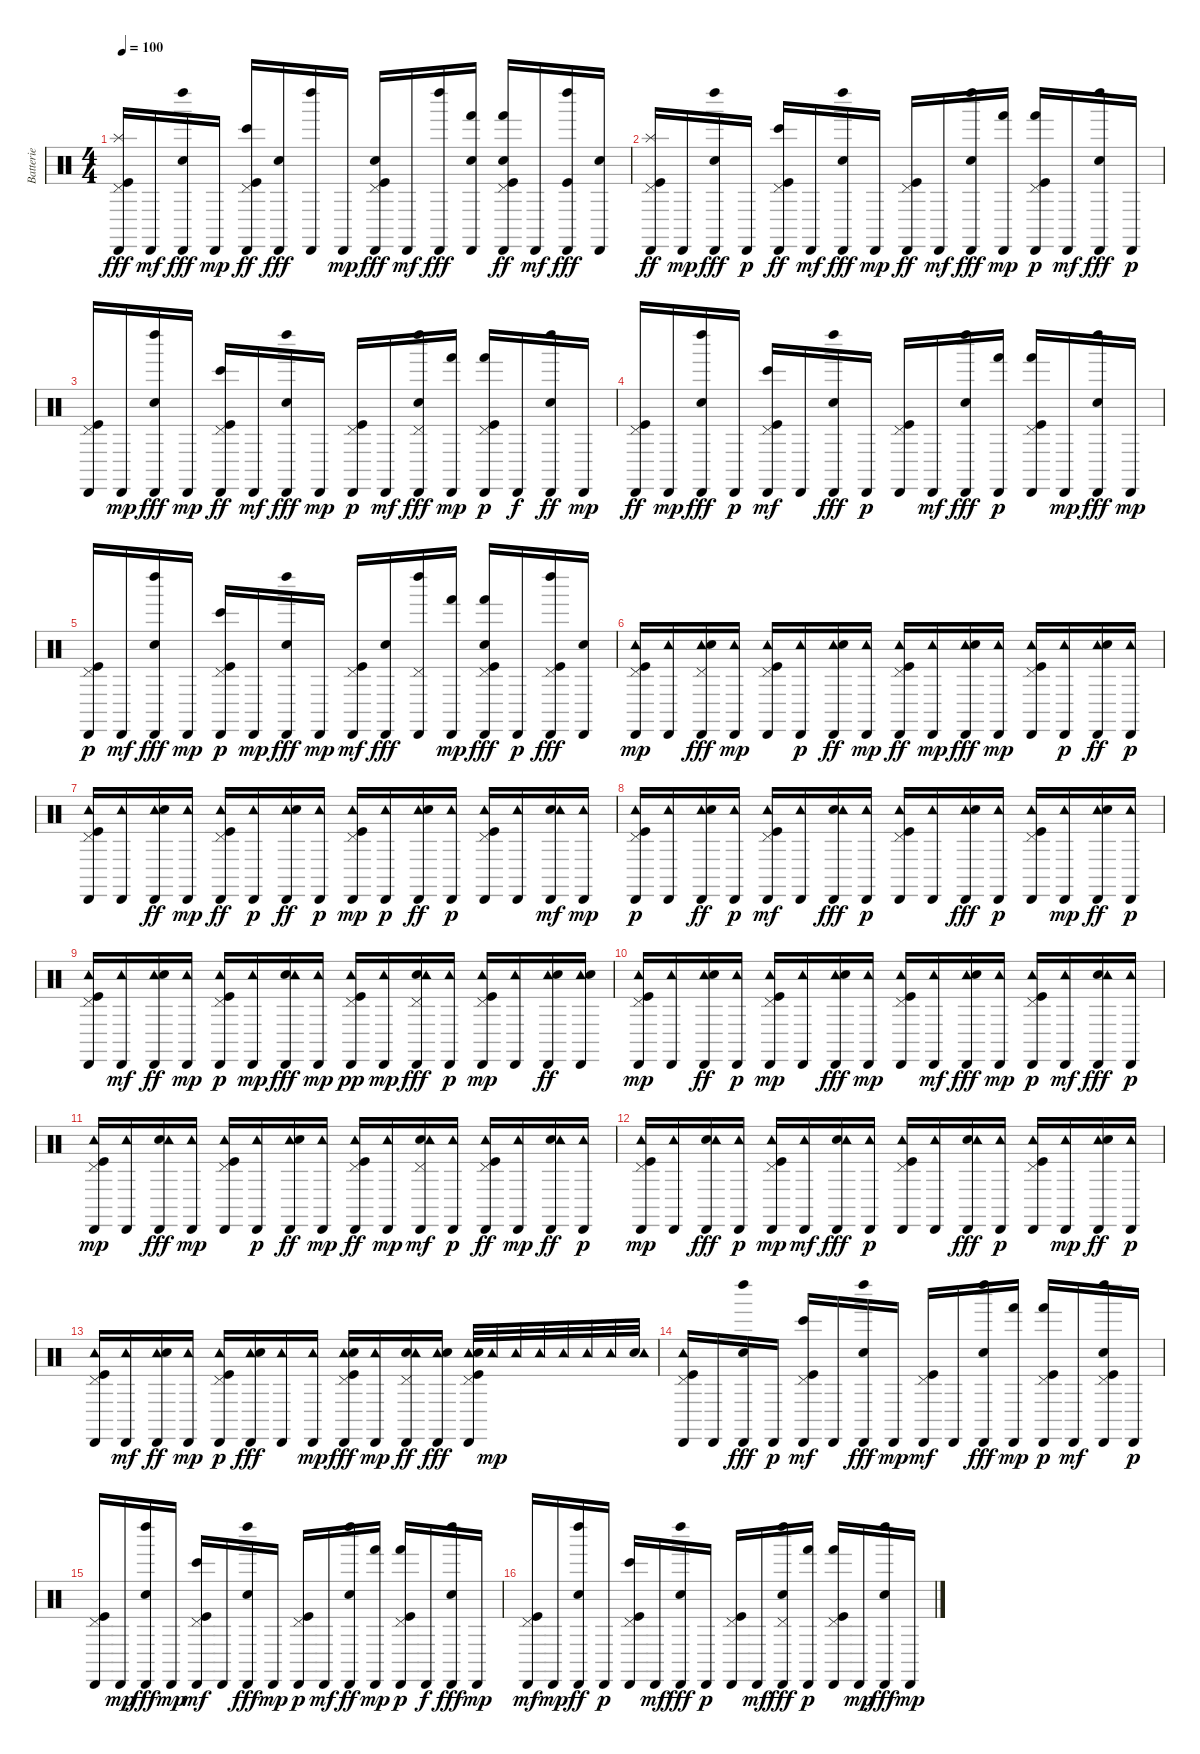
\track ("Batterie" "Batterie") {instrument percussion}
\staff {score}
\articulation defaults
\ts (4 4)
\tempo 100
\clef neutral
\ks c
("Kick (hit)" "Pedal Hi-Hat (hit)" "Cabasa (hit)" "Splash (hit)").16{dy fff} "Cabasa (hit)".16{dy mf} ("Cabasa (hit)" "Left Maraca (hit)" "Hand Clap (hit)").16{dy fff} "Cabasa (hit)".16{dy mp} ("Kick (hit)" "Cabasa (hit)" "Bongo High (hit)" "Pedal Hi-Hat (hit)").16{dy ff} ("Cabasa (hit)" "Hand Clap (hit)").16{dy fff} ("Cabasa (hit)" "Left Maraca (hit)").16 "Cabasa (hit)".16{dy mp} ("Kick (hit)" "Cabasa (hit)" "Hand Clap (hit)" "Pedal Hi-Hat (hit)").16{dy fff} "Cabasa (hit)".16{dy mf} ("Left Maraca (hit)" "Cabasa (hit)").16{dy fff} ("Hand (hit)" "Cabasa (hit)" "Hand Clap (hit)").16 ("Hand (hit)" "Hand Clap (hit)" "Cabasa (hit)" "Kick (hit)" "Pedal Hi-Hat (hit)").16{dy ff} "Cabasa (hit)".16{dy mf} ("Cabasa (hit)" "Left Maraca (hit)" "Kick (hit)").16{dy fff} ("Cabasa (hit)" "Hand Clap (hit)").16 |
("Cabasa (hit)" "Splash (hit)" "Kick (hit)" "Pedal Hi-Hat (hit)").16{dy ff} "Cabasa (hit)".16{dy mp} ("Cabasa (hit)" "Left Maraca (hit)" "Hand Clap (hit)").16{dy fff} "Cabasa (hit)".16{dy p} ("Cabasa (hit)" "Bongo High (hit)" "Kick (hit)" "Pedal Hi-Hat (hit)").16{dy ff} "Cabasa (hit)".16{dy mf} ("Cabasa (hit)" "Left Maraca (hit)" "Hand Clap (hit)").16{dy fff} "Cabasa (hit)".16{dy mp} ("Cabasa (hit)" "Kick (hit)" "Pedal Hi-Hat (hit)").16{dy ff} "Cabasa (hit)".16{dy mf} ("Left Maraca (hit)" "Cabasa (hit)" "Hand Clap (hit)").16{dy fff} ("Hand (hit)" "Cabasa (hit)").16{dy mp} ("Hand (hit)" "Kick (hit)" "Pedal Hi-Hat (hit)" "Cabasa (hit)").16{dy p} "Cabasa (hit)".16{dy mf} ("Left Maraca (hit)" "Cabasa (hit)" "Hand Clap (hit)").16{dy fff} "Cabasa (hit)".16{dy p} |
("Kick (hit)" "Cabasa (hit)" "Pedal Hi-Hat (hit)").16 "Cabasa (hit)".16{dy mp} ("Cabasa (hit)" "Left Maraca (hit)" "Hand Clap (hit)").16{dy fff} "Cabasa (hit)".16{dy mp} ("Bongo High (hit)" "Kick (hit)" "Cabasa (hit)" "Pedal Hi-Hat (hit)").16{dy ff} "Cabasa (hit)".16{dy mf} ("Cabasa (hit)" "Left Maraca (hit)" "Hand Clap (hit)").16{dy fff} "Cabasa (hit)".16{dy mp} ("Kick (hit)" "Cabasa (hit)" "Pedal Hi-Hat (hit)").16{dy p} "Cabasa (hit)".16{dy mf} ("Hand Clap (hit)" "Pedal Hi-Hat (hit)" "Cabasa (hit)" "Left Maraca (hit)").16{dy fff} ("Cabasa (hit)" "Hand (hit)").16{dy mp} ("Hand (hit)" "Kick (hit)" "Pedal Hi-Hat (hit)" "Cabasa (hit)").16{dy p} "Cabasa (hit)".16{dy f} ("Hand Clap (hit)" "Left Maraca (hit)" "Cabasa (hit)").16{dy ff} "Cabasa (hit)".16{dy mp} |
("Kick (hit)" "Cabasa (hit)" "Pedal Hi-Hat (hit)").16{dy ff} "Cabasa (hit)".16{dy mp} ("Cabasa (hit)" "Hand Clap (hit)" "Left Maraca (hit)").16{dy fff} "Cabasa (hit)".16{dy p} ("Cabasa (hit)" "Kick (hit)" "Bongo High (hit)" "Pedal Hi-Hat (hit)").16{dy mf} "Cabasa (hit)".16 ("Cabasa (hit)" "Hand Clap (hit)" "Left Maraca (hit)").16{dy fff} "Cabasa (hit)".16{dy p} ("Kick (hit)" "Cabasa (hit)" "Pedal Hi-Hat (hit)").16 "Cabasa (hit)".16{dy mf} ("Hand Clap (hit)" "Left Maraca (hit)" "Cabasa (hit)").16{dy fff} ("Hand (hit)" "Cabasa (hit)").16{dy p} ("Kick (hit)" "Hand (hit)" "Pedal Hi-Hat (hit)" "Cabasa (hit)").16 "Cabasa (hit)".16{dy mp} ("Cabasa (hit)" "Left Maraca (hit)" "Hand Clap (hit)").16{dy fff} "Cabasa (hit)".16{dy mp} |
("Kick (hit)" "Cabasa (hit)" "Pedal Hi-Hat (hit)").16{dy p} "Cabasa (hit)".16{dy mf} ("Cabasa (hit)" "Left Maraca (hit)" "Hand Clap (hit)").16{dy fff} "Cabasa (hit)".16{dy mp} ("Kick (hit)" "Bongo High (hit)" "Cabasa (hit)" "Pedal Hi-Hat (hit)").16{dy p} "Cabasa (hit)".16{dy mp} ("Cabasa (hit)" "Left Maraca (hit)" "Hand Clap (hit)").16{dy fff} "Cabasa (hit)".16{dy mp} ("Kick (hit)" "Cabasa (hit)" "Pedal Hi-Hat (hit)").16{dy mf} ("Cabasa (hit)" "Hand Clap (hit)").16{dy fff} ("Cabasa (hit)" "Left Maraca (hit)" "Pedal Hi-Hat (hit)").16 ("Cabasa (hit)" "Hand (hit)").16{dy mp} ("Kick (hit)" "Hand (hit)" "Cabasa (hit)" "Pedal Hi-Hat (hit)" "Hand Clap (hit)").16{dy fff} "Cabasa (hit)".16{dy p} ("Cabasa (hit)" "Kick (hit)" "Left Maraca (hit)" "Pedal Hi-Hat (hit)").16{dy fff} ("Cabasa (hit)" "Hand Clap (hit)").16 |
("Cabasa (hit)" "Tambourine (hit)" "Kick (hit)" "Pedal Hi-Hat (hit)").16{dy mp} ("Tambourine (hit)" "Cabasa (hit)").16 ("Cabasa (hit)" "Tambourine (hit)" "Pedal Hi-Hat (hit)" "Hand Clap (hit)").16{dy fff} ("Cabasa (hit)" "Tambourine (hit)").16{dy mp} ("Cabasa (hit)" "Kick (hit)" "Pedal Hi-Hat (hit)" "Tambourine (hit)").16 ("Cabasa (hit)" "Tambourine (hit)").16{dy p} ("Cabasa (hit)" "Tambourine (hit)" "Hand Clap (hit)").16{dy ff} ("Cabasa (hit)" "Tambourine (hit)").16{dy mp} ("Cabasa (hit)" "Kick (hit)" "Tambourine (hit)" "Pedal Hi-Hat (hit)").16{dy ff} ("Cabasa (hit)" "Tambourine (hit)").16{dy mp} ("Cabasa (hit)" "Tambourine (hit)" "Hand Clap (hit)").16{dy fff} ("Tambourine (hit)" "Cabasa (hit)").16{dy mp} ("Cabasa (hit)" "Kick (hit)" "Tambourine (hit)" "Pedal Hi-Hat (hit)").16 ("Cabasa (hit)" "Tambourine (hit)").16{dy p} ("Cabasa (hit)" "Tambourine (hit)" "Hand Clap (hit)").16{dy ff} ("Cabasa (hit)" "Tambourine (hit)").16{dy p} |
("Cabasa (hit)" "Tambourine (hit)" "Kick (hit)" "Pedal Hi-Hat (hit)").16 ("Cabasa (hit)" "Tambourine (hit)").16 ("Tambourine (hit)" "Cabasa (hit)" "Hand Clap (hit)").16{dy ff} ("Cabasa (hit)" "Tambourine (hit)").16{dy mp} ("Cabasa (hit)" "Tambourine (hit)" "Kick (hit)" "Pedal Hi-Hat (hit)").16{dy ff} ("Cabasa (hit)" "Tambourine (hit)").16{dy p} ("Cabasa (hit)" "Tambourine (hit)" "Hand Clap (hit)").16{dy ff} ("Cabasa (hit)" "Tambourine (hit)").16{dy p} ("Pedal Hi-Hat (hit)" "Kick (hit)" "Cabasa (hit)" "Tambourine (hit)").16{dy mp} ("Cabasa (hit)" "Tambourine (hit)").16{dy p} ("Cabasa (hit)" "Tambourine (hit)" "Hand Clap (hit)").16{dy ff} ("Cabasa (hit)" "Tambourine (hit)").16{dy p} ("Kick (hit)" "Pedal Hi-Hat (hit)" "Tambourine (hit)" "Cabasa (hit)").16 ("Cabasa (hit)" "Tambourine (hit)").16 ("Cabasa (hit)" "Hand Clap (hit)" "Tambourine (hit)").16{dy mf} ("Cabasa (hit)" "Tambourine (hit)").16{dy mp} |
("Tambourine (hit)" "Cabasa (hit)" "Pedal Hi-Hat (hit)" "Kick (hit)").16{dy p} ("Cabasa (hit)" "Tambourine (hit)").16 ("Cabasa (hit)" "Tambourine (hit)" "Hand Clap (hit)").16{dy ff} ("Cabasa (hit)" "Tambourine (hit)").16{dy p} ("Pedal Hi-Hat (hit)" "Tambourine (hit)" "Cabasa (hit)" "Kick (hit)").16{dy mf} ("Tambourine (hit)" "Cabasa (hit)").16 ("Hand Clap (hit)" "Cabasa (hit)" "Tambourine (hit)").16{dy fff} ("Tambourine (hit)" "Cabasa (hit)").16{dy p} ("Pedal Hi-Hat (hit)" "Kick (hit)" "Tambourine (hit)" "Cabasa (hit)").16 ("Cabasa (hit)" "Tambourine (hit)").16 ("Tambourine (hit)" "Hand Clap (hit)" "Cabasa (hit)").16{dy fff} ("Tambourine (hit)" "Cabasa (hit)").16{dy p} ("Tambourine (hit)" "Pedal Hi-Hat (hit)" "Kick (hit)" "Cabasa (hit)").16 ("Tambourine (hit)" "Cabasa (hit)").16{dy mp} ("Cabasa (hit)" "Tambourine (hit)" "Hand Clap (hit)").16{dy ff} ("Cabasa (hit)" "Tambourine (hit)").16{dy p} |
("Pedal Hi-Hat (hit)" "Tambourine (hit)" "Kick (hit)" "Cabasa (hit)").16 ("Tambourine (hit)" "Cabasa (hit)").16{dy mf} ("Cabasa (hit)" "Tambourine (hit)" "Hand Clap (hit)").16{dy ff} ("Tambourine (hit)" "Cabasa (hit)").16{dy mp} ("Pedal Hi-Hat (hit)" "Tambourine (hit)" "Kick (hit)" "Cabasa (hit)").16{dy p} ("Tambourine (hit)" "Cabasa (hit)").16{dy mp} ("Hand Clap (hit)" "Cabasa (hit)" "Tambourine (hit)").16{dy fff} ("Tambourine (hit)" "Cabasa (hit)").16{dy mp} ("Kick (hit)" "Pedal Hi-Hat (hit)" "Cabasa (hit)" "Tambourine (hit)").16{dy pp} ("Cabasa (hit)" "Tambourine (hit)").16{dy mp} ("Pedal Hi-Hat (hit)" "Hand Clap (hit)" "Cabasa (hit)" "Tambourine (hit)").16{dy fff} ("Cabasa (hit)" "Tambourine (hit)").16{dy p} ("Kick (hit)" "Pedal Hi-Hat (hit)" "Cabasa (hit)" "Tambourine (hit)").16{dy mp} ("Cabasa (hit)" "Tambourine (hit)").16 ("Tambourine (hit)" "Cabasa (hit)" "Hand Clap (hit)").16{dy ff} ("Cabasa (hit)" "Tambourine (hit)" "Hand Clap (hit)").16 |
("Kick (hit)" "Pedal Hi-Hat (hit)" "Tambourine (hit)" "Cabasa (hit)").16{dy mp} ("Tambourine (hit)" "Cabasa (hit)").16 ("Tambourine (hit)" "Cabasa (hit)" "Hand Clap (hit)").16{dy ff} ("Tambourine (hit)" "Cabasa (hit)").16{dy p} ("Cabasa (hit)" "Kick (hit)" "Tambourine (hit)" "Pedal Hi-Hat (hit)").16{dy mp} ("Cabasa (hit)" "Tambourine (hit)").16 ("Tambourine (hit)" "Cabasa (hit)" "Hand Clap (hit)").16{dy fff} ("Tambourine (hit)" "Cabasa (hit)").16{dy mp} ("Cabasa (hit)" "Kick (hit)" "Pedal Hi-Hat (hit)" "Tambourine (hit)").16 ("Tambourine (hit)" "Cabasa (hit)").16{dy mf} ("Tambourine (hit)" "Hand Clap (hit)" "Cabasa (hit)").16{dy fff} ("Tambourine (hit)" "Cabasa (hit)").16{dy mp} ("Pedal Hi-Hat (hit)" "Kick (hit)" "Tambourine (hit)" "Cabasa (hit)").16{dy p} ("Tambourine (hit)" "Cabasa (hit)").16{dy mf} ("Hand Clap (hit)" "Tambourine (hit)" "Cabasa (hit)").16{dy fff} ("Cabasa (hit)" "Tambourine (hit)").16{dy p} |
("Kick (hit)" "Pedal Hi-Hat (hit)" "Cabasa (hit)" "Tambourine (hit)").16{dy mp} ("Cabasa (hit)" "Tambourine (hit)").16 ("Cabasa (hit)" "Hand Clap (hit)" "Tambourine (hit)").16{dy fff} ("Cabasa (hit)" "Tambourine (hit)").16{dy mp} ("Kick (hit)" "Pedal Hi-Hat (hit)" "Cabasa (hit)" "Tambourine (hit)").16 ("Cabasa (hit)" "Tambourine (hit)").16{dy p} ("Cabasa (hit)" "Tambourine (hit)" "Hand Clap (hit)").16{dy ff} ("Tambourine (hit)" "Cabasa (hit)").16{dy mp} ("Kick (hit)" "Cabasa (hit)" "Tambourine (hit)" "Pedal Hi-Hat (hit)").16{dy ff} ("Cabasa (hit)" "Tambourine (hit)").16{dy mp} ("Hand Clap (hit)" "Cabasa (hit)" "Tambourine (hit)" "Pedal Hi-Hat (hit)").16{dy mf} ("Cabasa (hit)" "Tambourine (hit)").16{dy p} ("Kick (hit)" "Tambourine (hit)" "Cabasa (hit)" "Pedal Hi-Hat (hit)").16{dy ff} ("Tambourine (hit)" "Cabasa (hit)").16{dy mp} ("Hand Clap (hit)" "Tambourine (hit)" "Cabasa (hit)").16{dy ff} ("Cabasa (hit)" "Tambourine (hit)").16{dy p} |
("Kick (hit)" "Pedal Hi-Hat (hit)" "Cabasa (hit)" "Tambourine (hit)").16{dy mp} ("Cabasa (hit)" "Tambourine (hit)").16 ("Hand Clap (hit)" "Tambourine (hit)" "Cabasa (hit)").16{dy fff} ("Tambourine (hit)" "Cabasa (hit)").16{dy p} ("Kick (hit)" "Pedal Hi-Hat (hit)" "Cabasa (hit)" "Tambourine (hit)").16{dy mp} ("Tambourine (hit)" "Cabasa (hit)").16{dy mf} ("Hand Clap (hit)" "Cabasa (hit)" "Tambourine (hit)").16{dy fff} ("Tambourine (hit)" "Cabasa (hit)").16{dy p} ("Kick (hit)" "Pedal Hi-Hat (hit)" "Tambourine (hit)" "Cabasa (hit)").16 ("Cabasa (hit)" "Tambourine (hit)").16 ("Hand Clap (hit)" "Tambourine (hit)" "Cabasa (hit)").16{dy fff} ("Tambourine (hit)" "Cabasa (hit)").16{dy p} ("Kick (hit)" "Pedal Hi-Hat (hit)" "Tambourine (hit)" "Cabasa (hit)").16 ("Cabasa (hit)" "Tambourine (hit)").16{dy mp} ("Tambourine (hit)" "Cabasa (hit)" "Hand Clap (hit)").16{dy ff} ("Cabasa (hit)" "Tambourine (hit)").16{dy p} |
("Kick (hit)" "Pedal Hi-Hat (hit)" "Tambourine (hit)" "Cabasa (hit)").16 ("Tambourine (hit)" "Cabasa (hit)").16{dy mf} ("Tambourine (hit)" "Cabasa (hit)" "Hand Clap (hit)").16{dy ff} ("Tambourine (hit)" "Cabasa (hit)").16{dy mp} ("Pedal Hi-Hat (hit)" "Tambourine (hit)" "Cabasa (hit)" "Kick (hit)").16{dy p} ("Tambourine (hit)" "Cabasa (hit)" "Hand Clap (hit)").16{dy fff} ("Cabasa (hit)" "Tambourine (hit)").16 ("Tambourine (hit)" "Cabasa (hit)").16{dy mp} ("Pedal Hi-Hat (hit)" "Cabasa (hit)" "Tambourine (hit)" "Kick (hit)" "Hand Clap (hit)").16{dy fff} ("Cabasa (hit)" "Tambourine (hit)").16{dy mp} ("Pedal Hi-Hat (hit)" "Cabasa (hit)" "Hand Clap (hit)" "Tambourine (hit)").16{dy ff} ("Cabasa (hit)" "Tambourine (hit)" "Hand Clap (hit)").16{dy fff} ("Kick (hit)" "Cabasa (hit)" "Pedal Hi-Hat (hit)" "Tambourine (hit)" "Hand Clap (hit)").32 "Tambourine (hit)".32{dy mp} "Tambourine (hit)".32 "Tambourine (hit)".32 "Tambourine (hit)".32 "Tambourine (hit)".32 "Tambourine (hit)".32 ("Hand Clap (hit)" "Tambourine (hit)").32 |
("Tambourine (hit)" "Kick (hit)" "Pedal Hi-Hat (hit)" "Cabasa (hit)").16 "Cabasa (hit)".16 ("Hand Clap (hit)" "Cabasa (hit)" "Left Maraca (hit)").16{dy fff} "Cabasa (hit)".16{dy p} ("Cabasa (hit)" "Bongo High (hit)" "Kick (hit)" "Pedal Hi-Hat (hit)").16{dy mf} "Cabasa (hit)".16 ("Cabasa (hit)" "Hand Clap (hit)" "Left Maraca (hit)").16{dy fff} "Cabasa (hit)".16{dy mp} ("Cabasa (hit)" "Kick (hit)" "Pedal Hi-Hat (hit)").16{dy mf} "Cabasa (hit)".16 ("Cabasa (hit)" "Hand Clap (hit)" "Left Maraca (hit)").16{dy fff} ("Hand (hit)" "Cabasa (hit)").16{dy mp} ("Hand (hit)" "Kick (hit)" "Cabasa (hit)" "Pedal Hi-Hat (hit)").16{dy p} "Cabasa (hit)".16{dy mf} ("Kick (hit)" "Hand Clap (hit)" "Cabasa (hit)" "Left Maraca (hit)" "Pedal Hi-Hat (hit)").16 "Cabasa (hit)".16{dy p} |
("Cabasa (hit)" "Pedal Hi-Hat (hit)" "Kick (hit)").16 "Cabasa (hit)".16{dy mp} ("Cabasa (hit)" "Hand Clap (hit)" "Left Maraca (hit)").16{dy fff} "Cabasa (hit)".16{dy mp} ("Bongo High (hit)" "Pedal Hi-Hat (hit)" "Cabasa (hit)" "Kick (hit)").16{dy mf} "Cabasa (hit)".16 ("Cabasa (hit)" "Left Maraca (hit)" "Hand Clap (hit)").16{dy fff} "Cabasa (hit)".16{dy mp} ("Cabasa (hit)" "Kick (hit)" "Pedal Hi-Hat (hit)").16{dy p} "Cabasa (hit)".16{dy mf} ("Cabasa (hit)" "Left Maraca (hit)" "Hand Clap (hit)").16{dy ff} ("Cabasa (hit)" "Hand (hit)").16{dy mp} ("Pedal Hi-Hat (hit)" "Hand (hit)" "Kick (hit)" "Cabasa (hit)").16{dy p} "Cabasa (hit)".16{dy f} ("Cabasa (hit)" "Left Maraca (hit)" "Hand Clap (hit)").16{dy fff} "Cabasa (hit)".16{dy mp} |
("Pedal Hi-Hat (hit)" "Cabasa (hit)" "Kick (hit)").16{dy mf} "Cabasa (hit)".16{dy mp} ("Cabasa (hit)" "Left Maraca (hit)" "Hand Clap (hit)").16{dy ff} "Cabasa (hit)".16{dy p} ("Kick (hit)" "Bongo High (hit)" "Pedal Hi-Hat (hit)" "Cabasa (hit)").16 "Cabasa (hit)".16{dy mf} ("Cabasa (hit)" "Hand Clap (hit)" "Left Maraca (hit)").16{dy fff} "Cabasa (hit)".16{dy p} ("Kick (hit)" "Pedal Hi-Hat (hit)" "Cabasa (hit)").16 "Cabasa (hit)".16{dy mf} ("Pedal Hi-Hat (hit)" "Hand Clap (hit)" "Cabasa (hit)" "Left Maraca (hit)").16{dy fff} ("Hand (hit)" "Cabasa (hit)").16{dy p} ("Kick (hit)" "Hand (hit)" "Pedal Hi-Hat (hit)" "Cabasa (hit)").16 "Cabasa (hit)".16{dy mp} ("Hand Clap (hit)" "Cabasa (hit)" "Left Maraca (hit)").16{dy fff} "Cabasa (hit)".16{dy mp}
